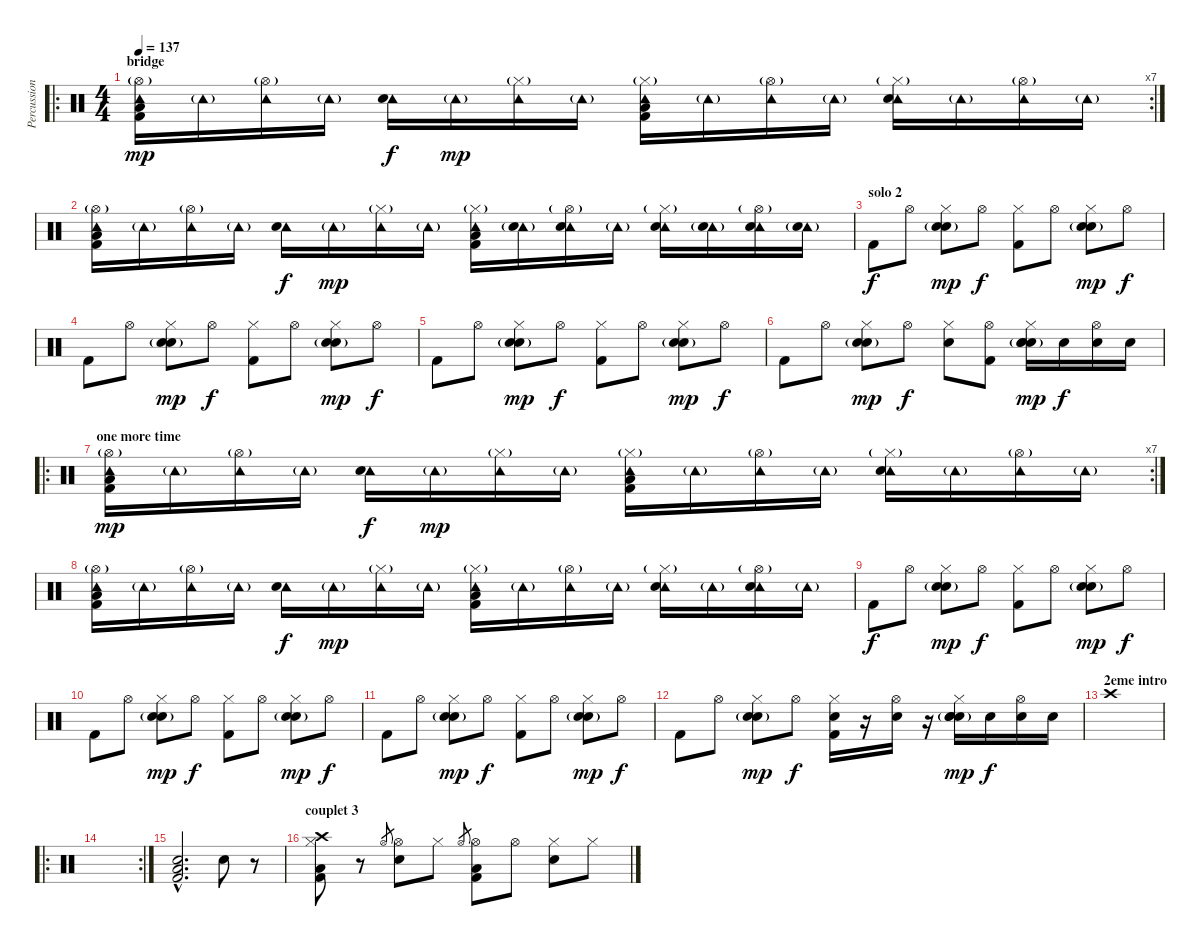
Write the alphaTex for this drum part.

\track ("Percussions" "Percussion") {instrument percussion}
\staff {score}
\articulation defaults
\ro
\rc 7
\ts (4 4)
\section ("" "bridge")
\tempo 137
\clef neutral
\ks c
("Hi-Hat (open)"{g} "Tambourine (hit)" "Kick (hit) 2" "Low Floor Tom (hit)").16{dy mp} "Tambourine (hit)"{g}.16 ("Hi-Hat (open)"{g} "Tambourine (hit)").16 "Tambourine (hit)"{g}.16 ("Tambourine (hit)" "Snare (hit) 2").16{dy f} "Tambourine (hit)"{g}.16{dy mp} ("Hi-Hat (closed)"{g} "Tambourine (hit)").16 "Tambourine (hit)"{g}.16 ("Hi-Hat (closed)"{g} "Tambourine (hit)" "Kick (hit) 2" "Low Floor Tom (hit)").16 "Tambourine (hit)"{g}.16 ("Hi-Hat (open)"{g} "Tambourine (hit)").16 "Tambourine (hit)"{g}.16 ("Hi-Hat (closed)"{g} "Tambourine (hit)" "Snare (hit) 2").16 "Tambourine (hit)"{g}.16 ("Hi-Hat (open)"{g} "Tambourine (hit)").16 "Tambourine (hit)"{g}.16 |
("Hi-Hat (open)"{g} "Tambourine (hit)" "Kick (hit) 2" "Low Floor Tom (hit)").16 "Tambourine (hit)"{g}.16 ("Hi-Hat (open)"{g} "Tambourine (hit)").16 "Tambourine (hit)"{g}.16 ("Tambourine (hit)" "Snare (hit) 2").16{dy f} "Tambourine (hit)"{g}.16{dy mp} ("Hi-Hat (closed)"{g} "Tambourine (hit)").16 "Tambourine (hit)"{g}.16 ("Hi-Hat (closed)"{g} "Tambourine (hit)" "Kick (hit) 2" "Low Floor Tom (hit)").16 ("Tambourine (hit)"{g} "Snare (hit) 2").16 ("Hi-Hat (open)"{g} "Tambourine (hit)" "Snare (hit) 2").16 "Tambourine (hit)"{g}.16 ("Hi-Hat (closed)"{g} "Tambourine (hit)" "Snare (hit) 2").16 ("Tambourine (hit)"{g} "Snare (hit) 2").16 ("Hi-Hat (open)"{g} "Tambourine (hit)" "Snare (hit) 2").16 ("Tambourine (hit)"{g} "Snare (hit) 2").16 |
\section ("" "solo 2")
"Kick (hit) 2".8{dy f} "Hi-Hat (open)".8 ("Hand Clap (hit)" "Hi-Hat (closed)" "Snare (hit) 2"{g}).8{dy mp} "Hi-Hat (open)".8{dy f} ("Kick (hit) 2" "Hi-Hat (closed)").8 "Hi-Hat (open)".8 ("Hand Clap (hit)" "Hi-Hat (closed)" "Snare (hit) 2"{g}).8{dy mp} "Hi-Hat (open)".8{dy f} |
"Kick (hit) 2".8 "Hi-Hat (open)".8 ("Hand Clap (hit)" "Hi-Hat (closed)" "Snare (hit) 2"{g}).8{dy mp} "Hi-Hat (open)".8{dy f} ("Kick (hit) 2" "Hi-Hat (closed)").8 "Hi-Hat (open)".8 ("Hand Clap (hit)" "Hi-Hat (closed)" "Snare (hit) 2"{g}).8{dy mp} "Hi-Hat (open)".8{dy f} |
"Kick (hit) 2".8 "Hi-Hat (open)".8 ("Hand Clap (hit)" "Hi-Hat (closed)" "Snare (hit) 2"{g}).8{dy mp} "Hi-Hat (open)".8{dy f} ("Kick (hit) 2" "Hi-Hat (closed)").8 "Hi-Hat (open)".8 ("Hand Clap (hit)" "Hi-Hat (closed)" "Snare (hit) 2"{g}).8{dy mp} "Hi-Hat (open)".8{dy f} |
"Kick (hit) 2".8 "Hi-Hat (open)".8 ("Hand Clap (hit)" "Hi-Hat (closed)" "Snare (hit) 2"{g}).8{dy mp} "Hi-Hat (open)".8{dy f} ("Snare (hit) 2" "Hi-Hat (closed)").8 ("Kick (hit) 2" "Hi-Hat (open)").8 ("Hand Clap (hit)" "Snare (hit) 2" "Hi-Hat (closed)" "Snare (hit) 2"{g}).16{dy mp} "Snare (hit) 2".16{dy f} ("Snare (hit) 2" "Hi-Hat (open)").16 "Snare (hit) 2".16 |
\ro
\rc 7
\section ("" "one more time")
("Hi-Hat (open)"{g} "Tambourine (hit)" "Kick (hit) 2" "Low Floor Tom (hit)").16{dy mp} "Tambourine (hit)"{g}.16 ("Hi-Hat (open)"{g} "Tambourine (hit)").16 "Tambourine (hit)"{g}.16 ("Tambourine (hit)" "Snare (hit) 2").16{dy f} "Tambourine (hit)"{g}.16{dy mp} ("Hi-Hat (closed)"{g} "Tambourine (hit)").16 "Tambourine (hit)"{g}.16 ("Hi-Hat (closed)"{g} "Tambourine (hit)" "Kick (hit) 2" "Low Floor Tom (hit)").16 "Tambourine (hit)"{g}.16 ("Hi-Hat (open)"{g} "Tambourine (hit)").16 "Tambourine (hit)"{g}.16 ("Hi-Hat (closed)"{g} "Tambourine (hit)" "Snare (hit) 2").16 "Tambourine (hit)"{g}.16 ("Hi-Hat (open)"{g} "Tambourine (hit)").16 "Tambourine (hit)"{g}.16 |
("Hi-Hat (open)"{g} "Tambourine (hit)" "Kick (hit) 2" "Low Floor Tom (hit)").16 "Tambourine (hit)"{g}.16 ("Hi-Hat (open)"{g} "Tambourine (hit)").16 "Tambourine (hit)"{g}.16 ("Tambourine (hit)" "Snare (hit) 2").16{dy f} "Tambourine (hit)"{g}.16{dy mp} ("Hi-Hat (closed)"{g} "Tambourine (hit)").16 "Tambourine (hit)"{g}.16 ("Hi-Hat (closed)"{g} "Tambourine (hit)" "Kick (hit) 2" "Low Floor Tom (hit)").16 "Tambourine (hit)"{g}.16 ("Hi-Hat (open)"{g} "Tambourine (hit)").16 "Tambourine (hit)"{g}.16 ("Hi-Hat (closed)"{g} "Tambourine (hit)" "Snare (hit) 2").16 "Tambourine (hit)"{g}.16 ("Hi-Hat (open)"{g} "Tambourine (hit)" "Snare (hit) 2").16 "Tambourine (hit)"{g}.16 |
"Kick (hit) 2".8{dy f} "Hi-Hat (open)".8 ("Hand Clap (hit)" "Hi-Hat (closed)" "Snare (hit) 2"{g}).8{dy mp} "Hi-Hat (open)".8{dy f} ("Kick (hit) 2" "Hi-Hat (closed)").8 "Hi-Hat (open)".8 ("Hand Clap (hit)" "Hi-Hat (closed)" "Snare (hit) 2"{g}).8{dy mp} "Hi-Hat (open)".8{dy f} |
"Kick (hit) 2".8 "Hi-Hat (open)".8 ("Hand Clap (hit)" "Hi-Hat (closed)" "Snare (hit) 2"{g}).8{dy mp} "Hi-Hat (open)".8{dy f} ("Kick (hit) 2" "Hi-Hat (closed)").8 "Hi-Hat (open)".8 ("Hand Clap (hit)" "Hi-Hat (closed)" "Snare (hit) 2"{g}).8{dy mp} "Hi-Hat (open)".8{dy f} |
"Kick (hit) 2".8 "Hi-Hat (open)".8 ("Hand Clap (hit)" "Hi-Hat (closed)" "Snare (hit) 2"{g}).8{dy mp} "Hi-Hat (open)".8{dy f} ("Kick (hit) 2" "Hi-Hat (closed)").8 "Hi-Hat (open)".8 ("Hand Clap (hit)" "Hi-Hat (closed)" "Snare (hit) 2"{g}).8{dy mp} "Hi-Hat (open)".8{dy f} |
"Kick (hit) 2".8 "Hi-Hat (open)".8 ("Hand Clap (hit)" "Hi-Hat (closed)" "Snare (hit) 2"{g}).8{dy mp} "Hi-Hat (open)".8{dy f} ("Snare (hit) 2" "Kick (hit) 2" "Hi-Hat (closed)").16 r.16 ("Snare (hit) 2" "Hi-Hat (open)").16 r.16 ("Snare (hit) 2" "Hand Clap (hit)" "Hi-Hat (closed)" "Snare (hit) 2"{g}).16{dy mp} "Snare (hit) 2".16{dy f} ("Snare (hit) 2" "Hi-Hat (open)").16 "Snare (hit) 2".16 |
\section ("" "2eme intro")
"Crash high (hit)".1 |
\ro
\rc 2
|
("Low Floor Tom (hit)"{hac} "Kick (hit) 2"{hac} "Snare (hit) 2"{hac}).2{d} "Snare (hit) 2".8 r.8 |
\section ("" "couplet 3")
("Hi-Hat (closed)" "Crash high (hit)" "Kick (hit) 2" "Low Floor Tom (hit)").8 r.8 "Hi-Hat (open)".8{gr} ("Hi-Hat (open)" "Snare (hit) 2").8 "Hi-Hat (closed)".8 "Hi-Hat (open)".8{gr} ("Hi-Hat (open)" "Kick (hit) 2" "Low Floor Tom (hit)").8 "Hi-Hat (open)".8 ("Hi-Hat (closed)" "Snare (hit) 2").8 "Hi-Hat (closed)".8
